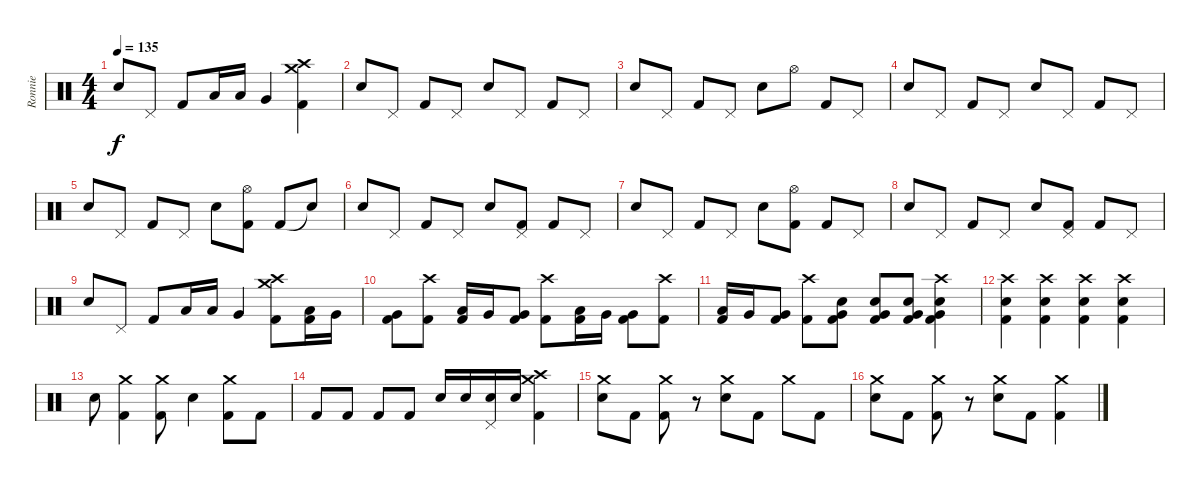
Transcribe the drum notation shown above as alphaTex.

\track ("Ronnie" "Ronnie") {instrument percussion}
\staff {score}
\articulation defaults
\ts (4 4)
\tempo 135
\clef neutral
\ks c "Electric Snare (hit)".8{dy f} "Pedal Hi-Hat (hit)".8 "Kick (hit) 2".8 "Low Tom (hit)".16 "Low Tom (hit)".16 "Very Low Tom (hit)".4
("Crash high (hit)" "Kick (hit) 2" "Crash medium (hit)").4 |
"Electric Snare (hit)".8 "Pedal Hi-Hat (hit)".8 "Kick (hit) 2".8 "Pedal Hi-Hat (hit)".8 "Electric Snare (hit)".8 "Pedal Hi-Hat (hit)".8 "Kick (hit) 2".8 "Pedal Hi-Hat (hit)".8 |
"Electric Snare (hit)".8 "Pedal Hi-Hat (hit)".8 "Kick (hit) 2".8 "Pedal Hi-Hat (hit)".8 "Electric Snare (hit)".8 "Hi-Hat (open)".8 "Kick (hit) 2".8 "Pedal Hi-Hat (hit)".8 |
"Electric Snare (hit)".8 "Pedal Hi-Hat (hit)".8 "Kick (hit) 2".8 "Pedal Hi-Hat (hit)".8 "Electric Snare (hit)".8 "Pedal Hi-Hat (hit)".8 "Kick (hit) 2".8 "Pedal Hi-Hat (hit)".8 |
"Electric Snare (hit)".8 "Pedal Hi-Hat (hit)".8 "Kick (hit) 2".8 "Pedal Hi-Hat (hit)".8 "Electric Snare (hit)".8 ("Hi-Hat (open)" "Kick (hit) 2").8 "Kick (hit) 2".8 "Electric Snare (hit)"{t}.8 |
"Electric Snare (hit)".8 "Pedal Hi-Hat (hit)".8 "Kick (hit) 2".8 "Pedal Hi-Hat (hit)".8 "Electric Snare (hit)".8 ("Pedal Hi-Hat (hit)" "Kick (hit) 2").8 "Kick (hit) 2".8 "Pedal Hi-Hat (hit)".8 |
"Electric Snare (hit)".8 "Pedal Hi-Hat (hit)".8 "Kick (hit) 2".8 "Pedal Hi-Hat (hit)".8 "Electric Snare (hit)".8 ("Hi-Hat (open)" "Kick (hit) 2").8 "Kick (hit) 2".8 "Pedal Hi-Hat (hit)".8 |
"Electric Snare (hit)".8 "Pedal Hi-Hat (hit)".8 "Kick (hit) 2".8 "Pedal Hi-Hat (hit)".8 "Electric Snare (hit)".8 ("Pedal Hi-Hat (hit)" "Kick (hit) 2").8 "Kick (hit) 2".8 "Pedal Hi-Hat (hit)".8 |
"Electric Snare (hit)".8 "Pedal Hi-Hat (hit)".8 "Kick (hit) 2".8 "Low Tom (hit)".16 "Low Tom (hit)".16 "Very Low Tom (hit)".4 ("Crash high (hit)" "Kick (hit) 2" "Crash medium (hit)").8 ("Low Tom (hit)" "Kick (hit) 2").16 "Very Low Tom (hit)".16 |
("Very Low Tom (hit)" "Kick (hit) 2").8 ("Crash high (hit)" "Kick (hit) 2").8 ("Low Tom (hit)" "Kick (hit) 2").16 "Very Low Tom (hit)".16 ("Very Low Tom (hit)" "Kick (hit) 2").8 ("Crash high (hit)" "Kick (hit) 2").8 ("Low Tom (hit)" "Kick (hit) 2").16 "Very Low Tom (hit)".16 ("Very Low Tom (hit)" "Kick (hit) 2").8 ("Crash high (hit)" "Kick (hit) 2").8 |
("Low Tom (hit)" "Kick (hit) 2").16 "Very Low Tom (hit)".16 ("Very Low Tom (hit)" "Kick (hit) 2").8 ("Crash high (hit)" "Kick (hit) 2").8 ("Electric Snare (hit)" "Kick (hit) 2" "Very Low Tom (hit)").8 ("Electric Snare (hit)" "Kick (hit) 2" "Very Low Tom (hit)").8 ("Electric Snare (hit)" "Kick (hit) 2" "Very Low Tom (hit)").8 ("Electric Snare (hit)" "Kick (hit) 2" "Very Low Tom (hit)" "Crash high (hit)").4 |
("Electric Snare (hit)" "Kick (hit) 2" "Crash high (hit)").4 ("Electric Snare (hit)" "Kick (hit) 2" "Crash high (hit)").4 ("Electric Snare (hit)" "Kick (hit) 2" "Crash high (hit)").4 ("Electric Snare (hit)" "Kick (hit) 2" "Crash high (hit)").4 |
"Electric Snare (hit)".8 ("Kick (hit) 2" "Crash medium (hit)").4 ("Kick (hit) 2" "Crash medium (hit)").8 "Electric Snare (hit)".4 ("Kick (hit) 2" "Crash medium (hit)").8 "Kick (hit) 2".8 |
"Kick (hit) 2".8 "Kick (hit) 2".8 "Kick (hit) 2".8 "Kick (hit) 2".8 "Electric Snare (hit)".16 "Electric Snare (hit)".16 ("Electric Snare (hit)" "Pedal Hi-Hat (hit)").16 "Electric Snare (hit)".16 ("Crash high (hit)" "Kick (hit) 2" "Crash medium (hit)").4 |
("Crash medium (hit)" "Electric Snare (hit)").8 "Kick (hit) 2".8 ("Kick (hit) 2" "Crash medium (hit)").8 r.8 ("Crash medium (hit)" "Electric Snare (hit)").8 "Kick (hit) 2".8 "Crash medium (hit)".8 "Kick (hit) 2".8 |
("Crash medium (hit)" "Electric Snare (hit)").8 "Kick (hit) 2".8 ("Kick (hit) 2" "Crash medium (hit)").8 r.8 ("Crash medium (hit)" "Electric Snare (hit)").8 "Kick (hit) 2".8 ("Kick (hit) 2" "Crash medium (hit)").4
